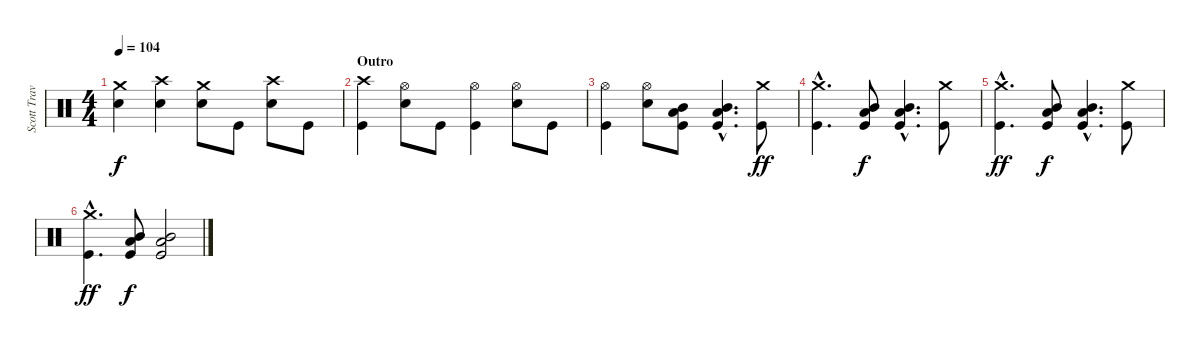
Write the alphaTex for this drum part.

\track ("Scott Travis" "Scott Trav") {instrument percussion}
\staff {score}
\articulation defaults
\ts (4 4)
\tempo 104
\clef neutral
\ks c
("Crash medium (hit)" "Electric Snare (hit)").4{dy f} ("Crash high (hit)" "Electric Snare (hit)").4 ("Crash medium (hit)" "Electric Snare (hit)").8 "Kick (hit)".8 ("Crash high (hit)" "Electric Snare (hit)").8 "Kick (hit)".8 |
\section ("" "Outro")
("Crash high (hit)" "Kick (hit)").4 ("Hi-Hat (open)" "Electric Snare (hit)").8 "Kick (hit)".8 ("Hi-Hat (open)" "Kick (hit)").4 ("Hi-Hat (open)" "Electric Snare (hit)").8 "Kick (hit)".8 |
("Hi-Hat (open)" "Kick (hit)").4 ("Hi-Hat (open)" "Electric Snare (hit)").8 ("Mid Tom (hit)" "Low Tom (hit)" "Kick (hit)").8 ("Mid Tom (hit)"{hac} "Low Tom (hit)"{hac} "Kick (hit)"{hac}).4{d} ("Crash medium (hit)" "Kick (hit)").8{dy ff} |
("Crash medium (hit)"{hac} "Kick (hit)"{hac}).4{d} ("Mid Tom (hit)" "Low Tom (hit)" "Kick (hit)").8{dy f} ("Mid Tom (hit)"{hac} "Low Tom (hit)"{hac} "Kick (hit)"{hac}).4{d} ("Crash medium (hit)" "Kick (hit)").8 |
("Crash medium (hit)"{hac} "Kick (hit)"{hac}).4{d dy ff} ("Mid Tom (hit)" "Low Tom (hit)" "Kick (hit)").8{dy f} ("Mid Tom (hit)"{hac} "Low Tom (hit)"{hac} "Kick (hit)"{hac}).4{d} ("Crash medium (hit)" "Kick (hit)").8 |
("Crash medium (hit)"{hac} "Kick (hit)"{hac}).4{d dy ff} ("Mid Tom (hit)" "Low Tom (hit)" "Kick (hit)").8{dy f} ("Mid Tom (hit)" "Low Tom (hit)" "Kick (hit)").2
